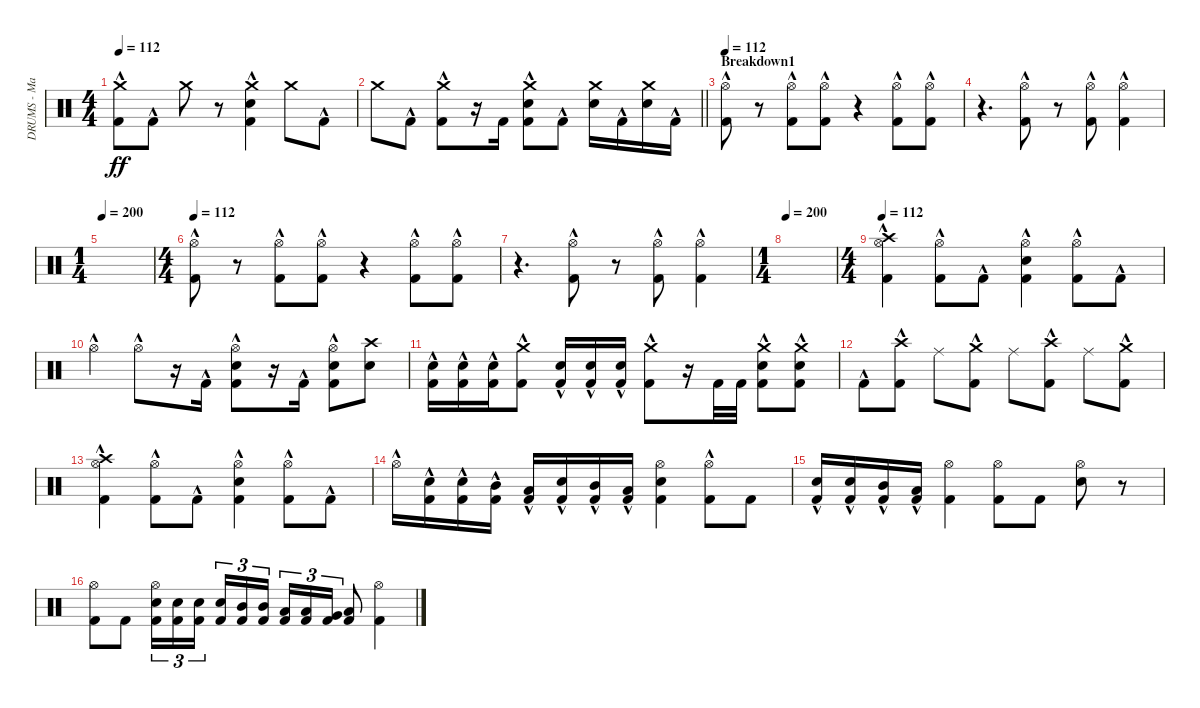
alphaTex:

\track ("DRUMS - Mario Duplantier" "DRUMS - Ma") {instrument percussion}
\staff {score}
\articulation defaults
\ts (4 4)
\tempo 112
\clef neutral
\ks c
("Crash medium (hit)" "Kick (hit) 2"{hac}).8{dy ff} "Kick (hit) 2"{hac}.8 "Crash medium (hit)".8 r.8 ("Crash medium (hit)" "Electric Snare (hit)" "Kick (hit) 2"{hac}).4 "Crash medium (hit)".8 "Kick (hit) 2"{hac}.8 |
\barLineRight lightlight "Crash medium (hit)".8 "Kick (hit) 2"{hac}.8
("Crash medium (hit)" "Kick (hit) 2"{hac}).8 r.16 "Kick (hit) 2".16 ("Crash medium (hit)" "Electric Snare (hit)" "Kick (hit) 2"{hac}).8 "Kick (hit) 2"{hac}.8 ("Crash medium (hit)" "Electric Snare (hit)").16 "Kick (hit) 2"{hac}.16 ("Crash medium (hit)" "Electric Snare (hit)").16 "Kick (hit) 2"{hac}.16 |
\section ("" "Breakdown1")
\tempo 112
("Hi-Hat (open)" "Kick (hit) 2"{hac}).8 r.8 ("Hi-Hat (open)" "Kick (hit) 2"{hac}).8 ("Hi-Hat (open)" "Kick (hit) 2"{hac}).8 r.4 ("Hi-Hat (open)" "Kick (hit) 2"{hac}).8 ("Hi-Hat (open)" "Kick (hit) 2"{hac}).8 |
r.4{d} ("Hi-Hat (open)" "Kick (hit) 2"{hac}).8 r.8 ("Hi-Hat (open)" "Kick (hit) 2"{hac}).8 ("Hi-Hat (open)" "Kick (hit) 2"{hac}).4 |
\ts (1 4)
\tempo 200
|
\ts (4 4)
\tempo 112
("Hi-Hat (open)" "Kick (hit) 2"{hac}).8 r.8 ("Hi-Hat (open)" "Kick (hit) 2"{hac}).8 ("Hi-Hat (open)" "Kick (hit) 2"{hac}).8 r.4 ("Hi-Hat (open)" "Kick (hit) 2"{hac}).8 ("Hi-Hat (open)" "Kick (hit) 2"{hac}).8 |
r.4{d} ("Hi-Hat (open)" "Kick (hit) 2"{hac}).8 r.8 ("Hi-Hat (open)" "Kick (hit) 2"{hac}).8 ("Hi-Hat (open)" "Kick (hit) 2"{hac}).4 |
\ts (1 4)
\tempo 200
|
\ts (4 4)
\tempo 112
("Crash high (hit)" "Hi-Hat (open)"{hac} "Kick (hit) 2"{hac}).4 ("Hi-Hat (open)"{hac} "Kick (hit) 2"{hac}).8 "Kick (hit) 2"{hac}.8 ("Hi-Hat (open)"{hac} "Electric Snare (hit)" "Kick (hit) 2"{hac}).4 ("Hi-Hat (open)"{hac} "Kick (hit) 2"{hac}).8 "Kick (hit) 2"{hac}.8 |
"Hi-Hat (open)"{hac}.4 "Hi-Hat (open)"{hac}.8 r.16 "Kick (hit) 2"{hac}.16 ("Hi-Hat (open)"{hac} "Electric Snare (hit)" "Kick (hit) 2"{hac}).8 r.16 "Kick (hit) 2"{hac}.16 ("Hi-Hat (open)" "Electric Snare (hit)" "Kick (hit) 2"{hac}).8 ("Crash high (hit)" "Electric Snare (hit)").8 |
("Electric Snare (hit)" "Kick (hit) 2"{hac}).16 ("Electric Snare (hit)" "Kick (hit) 2"{hac}).16 ("Electric Snare (hit)" "Kick (hit) 2"{hac}).16 ("Crash medium (hit)" "Kick (hit) 2"{hac}).8 ("Electric Snare (hit)" "Kick (hit) 2"{hac}).16 ("Electric Snare (hit)" "Kick (hit) 2"{hac}).16 ("Electric Snare (hit)" "Kick (hit) 2"{hac}).16 ("Crash medium (hit)" "Kick (hit) 2"{hac}).8 r.16 "Kick (hit) 2".32 "Kick (hit) 2".32 ("Crash medium (hit)" "Electric Snare (hit)" "Kick (hit) 2"{hac}).8 ("Crash medium (hit)" "Electric Snare (hit)" "Kick (hit) 2"{hac}).8 |
"Kick (hit) 2"{hac}.8 ("Crash high (hit)" "Kick (hit) 2"{hac}).8 "Ride (middle)".8 ("Crash medium (hit)" "Kick (hit) 2"{hac}).8 "Ride (middle)".8 ("Crash high (hit)" "Kick (hit) 2"{hac}).8 "Ride (middle)".8 ("Crash medium (hit)" "Kick (hit) 2"{hac}).8 |
("Crash high (hit)" "Hi-Hat (open)"{hac} "Kick (hit) 2"{hac}).4 ("Hi-Hat (open)"{hac} "Kick (hit) 2"{hac}).8 "Kick (hit) 2"{hac}.8 ("Hi-Hat (open)"{hac} "Electric Snare (hit)" "Kick (hit) 2"{hac}).4 ("Hi-Hat (open)"{hac} "Kick (hit) 2"{hac}).8 "Kick (hit) 2"{hac}.8 |
"Hi-Hat (open)"{hac}.16 ("Electric Snare (hit)" "Kick (hit) 2"{hac}).16 ("Electric Snare (hit)" "Kick (hit) 2"{hac}).16 ("Mid Tom (hit)" "Kick (hit) 2"{hac}).16 ("Low Tom (hit)" "Kick (hit) 2"{hac}).16 ("Electric Snare (hit)" "Kick (hit) 2"{hac}).16 ("Mid Tom (hit)" "Kick (hit) 2"{hac}).16 ("Low Tom (hit)" "Kick (hit) 2"{hac}).16 ("Hi-Hat (open)" "Electric Snare (hit)" "Kick (hit) 2").4 ("Hi-Hat (open)" "Kick (hit) 2"{hac}).8 "Kick (hit) 2".8 |
("Electric Snare (hit)" "Kick (hit) 2"{hac}).16 ("Electric Snare (hit)" "Kick (hit) 2"{hac}).16 ("Mid Tom (hit)" "Kick (hit) 2"{hac}).16 ("Low Tom (hit)" "Kick (hit) 2"{hac}).16 ("Hi-Hat (open)" "Kick (hit) 2").4 ("Hi-Hat (open)" "Kick (hit) 2").8 "Kick (hit) 2".8 ("Hi-Hat (open)" "Electric Snare (hit)").8 r.8 |
("Hi-Hat (open)" "Kick (hit) 2").8 "Kick (hit) 2".8 ("Hi-Hat (open)" "Electric Snare (hit)" "Kick (hit) 2").16{tu (3 2)} ("Electric Snare (hit)" "Kick (hit) 2").16{tu (3 2)} ("Electric Snare (hit)" "Kick (hit) 2").16{tu (3 2) beam splitsecondary} ("Electric Snare (hit)" "Kick (hit) 2").16{tu (3 2)} ("Mid Tom (hit)" "Kick (hit) 2").16{tu (3 2)} ("Mid Tom (hit)" "Kick (hit) 2").16{tu (3 2)} ("Low Tom (hit)" "Kick (hit) 2").16{tu (3 2)} ("Low Tom (hit)" "Kick (hit) 2").16{tu (3 2)} ("Very Low Tom (hit)" "Kick (hit) 2").16{tu (3 2)} ("Low Floor Tom (hit)" "Kick (hit) 2").8 ("Hi-Hat (open)" "Kick (hit) 2").4
